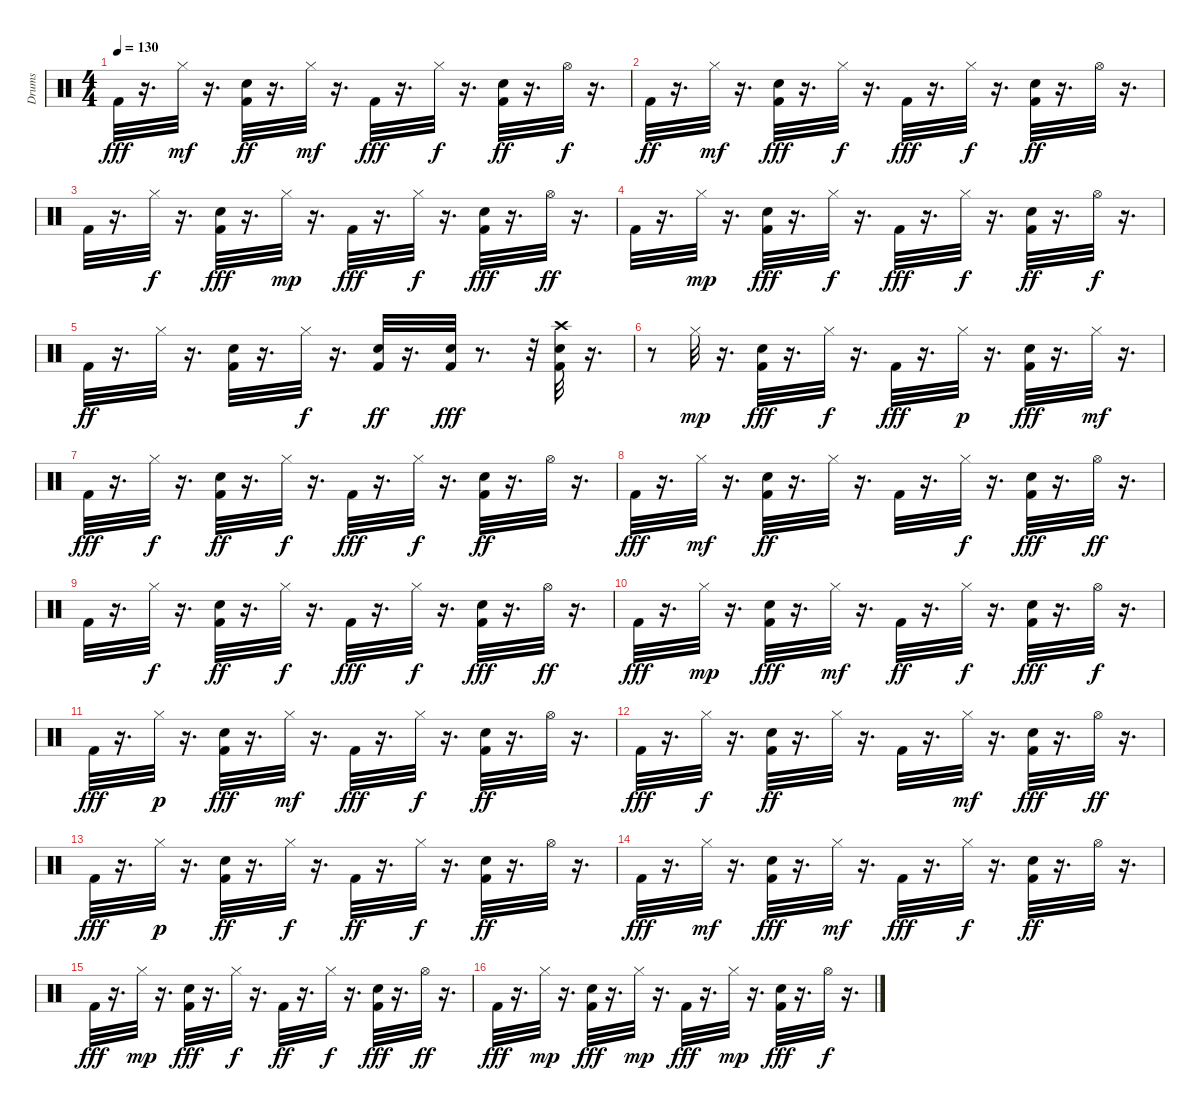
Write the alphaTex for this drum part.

\track ("Drums               " "Drums     ") {instrument percussion}
\staff {score}
\articulation defaults
\ts (4 4)
\tempo 130
\clef neutral
\ks c "Kick (hit) 2".32{dy fff}
r.16{d} "Hi-Hat (closed)".32{dy mf} r.16{d} ("Kick (hit) 2" "Snare (hit) 2").32{dy ff} r.16{d} "Hi-Hat (closed)".32{dy mf} r.16{d} "Kick (hit) 2".32{dy fff} r.16{d} "Hi-Hat (closed)".32{dy f} r.16{d} ("Kick (hit) 2" "Snare (hit) 2").32{dy ff} r.16{d} "Hi-Hat (open)".32{dy f} r.16{d} |
"Kick (hit) 2".32{dy ff} r.16{d} "Hi-Hat (closed)".32{dy mf} r.16{d} ("Kick (hit) 2" "Snare (hit) 2").32{dy fff} r.16{d} "Hi-Hat (closed)".32{dy f} r.16{d} "Kick (hit) 2".32{dy fff} r.16{d} "Hi-Hat (closed)".32{dy f} r.16{d} ("Kick (hit) 2" "Snare (hit) 2").32{dy ff} r.16{d} "Hi-Hat (open)".32 r.16{d} |
"Kick (hit) 2".32 r.16{d} "Hi-Hat (closed)".32{dy f} r.16{d} ("Kick (hit) 2" "Snare (hit) 2").32{dy fff} r.16{d} "Hi-Hat (closed)".32{dy mp} r.16{d} "Kick (hit) 2".32{dy fff} r.16{d} "Hi-Hat (closed)".32{dy f} r.16{d} ("Kick (hit) 2" "Snare (hit) 2").32{dy fff} r.16{d} "Hi-Hat (open)".32{dy ff} r.16{d} |
"Kick (hit) 2".32 r.16{d} "Hi-Hat (closed)".32{dy mp} r.16{d} ("Kick (hit) 2" "Snare (hit) 2").32{dy fff} r.16{d} "Hi-Hat (closed)".32{dy f} r.16{d} "Kick (hit) 2".32{dy fff} r.16{d} "Hi-Hat (closed)".32{dy f} r.16{d} ("Kick (hit) 2" "Snare (hit) 2").32{dy ff} r.16{d} "Hi-Hat (open)".32{dy f} r.16{d} |
"Kick (hit) 2".32{dy ff} r.16{d} "Hi-Hat (closed)".32 r.16{d} ("Kick (hit) 2" "Snare (hit) 2").32 r.16{d} "Hi-Hat (closed)".32{dy f} r.16{d} ("Kick (hit) 2" "Snare (hit) 2").32{dy ff} r.16{d} ("Kick (hit) 2" "Snare (hit) 2").32{dy fff} r.8{d} r.32 ("Kick (hit) 2" "Snare (hit) 2" "Crash high (hit)").32 r.16{d} |
r.8 "Hi-Hat (closed)".32{dy mp} r.16{d} ("Kick (hit) 2" "Snare (hit) 2").32{dy fff} r.16{d} "Hi-Hat (closed)".32{dy f} r.16{d} "Kick (hit) 2".32{dy fff} r.16{d} "Hi-Hat (closed)".32{dy p} r.16{d} ("Kick (hit) 2" "Snare (hit) 2").32{dy fff} r.16{d} "Hi-Hat (closed)".32{dy mf} r.16{d} |
"Kick (hit) 2".32{dy fff} r.16{d} "Hi-Hat (closed)".32{dy f} r.16{d} ("Kick (hit) 2" "Snare (hit) 2").32{dy ff} r.16{d} "Hi-Hat (closed)".32{dy f} r.16{d} "Kick (hit) 2".32{dy fff} r.16{d} "Hi-Hat (closed)".32{dy f} r.16{d} ("Kick (hit) 2" "Snare (hit) 2").32{dy ff} r.16{d} "Hi-Hat (open)".32 r.16{d} |
"Kick (hit) 2".32{dy fff} r.16{d} "Hi-Hat (closed)".32{dy mf} r.16{d} ("Kick (hit) 2" "Snare (hit) 2").32{dy ff} r.16{d} "Hi-Hat (closed)".32 r.16{d} "Kick (hit) 2".32 r.16{d} "Hi-Hat (closed)".32{dy f} r.16{d} ("Kick (hit) 2" "Snare (hit) 2").32{dy fff} r.16{d} "Hi-Hat (open)".32{dy ff} r.16{d} |
"Kick (hit) 2".32 r.16{d} "Hi-Hat (closed)".32{dy f} r.16{d} ("Kick (hit) 2" "Snare (hit) 2").32{dy ff} r.16{d} "Hi-Hat (closed)".32{dy f} r.16{d} "Kick (hit) 2".32{dy fff} r.16{d} "Hi-Hat (closed)".32{dy f} r.16{d} ("Kick (hit) 2" "Snare (hit) 2").32{dy fff} r.16{d} "Hi-Hat (open)".32{dy ff} r.16{d} |
"Kick (hit) 2".32{dy fff} r.16{d} "Hi-Hat (closed)".32{dy mp} r.16{d} ("Kick (hit) 2" "Snare (hit) 2").32{dy fff} r.16{d} "Hi-Hat (closed)".32{dy mf} r.16{d} "Kick (hit) 2".32{dy ff} r.16{d} "Hi-Hat (closed)".32{dy f} r.16{d} ("Kick (hit) 2" "Snare (hit) 2").32{dy fff} r.16{d} "Hi-Hat (open)".32{dy f} r.16{d} |
"Kick (hit) 2".32{dy fff} r.16{d} "Hi-Hat (closed)".32{dy p} r.16{d} ("Kick (hit) 2" "Snare (hit) 2").32{dy fff} r.16{d} "Hi-Hat (closed)".32{dy mf} r.16{d} "Kick (hit) 2".32{dy fff} r.16{d} "Hi-Hat (closed)".32{dy f} r.16{d} ("Kick (hit) 2" "Snare (hit) 2").32{dy ff} r.16{d} "Hi-Hat (open)".32 r.16{d} |
"Kick (hit) 2".32{dy fff} r.16{d} "Hi-Hat (closed)".32{dy f} r.16{d} ("Kick (hit) 2" "Snare (hit) 2").32{dy ff} r.16{d} "Hi-Hat (closed)".32 r.16{d} "Kick (hit) 2".32 r.16{d} "Hi-Hat (closed)".32{dy mf} r.16{d} ("Kick (hit) 2" "Snare (hit) 2").32{dy fff} r.16{d} "Hi-Hat (open)".32{dy ff} r.16{d} |
"Kick (hit) 2".32{dy fff} r.16{d} "Hi-Hat (closed)".32{dy p} r.16{d} ("Kick (hit) 2" "Snare (hit) 2").32{dy ff} r.16{d} "Hi-Hat (closed)".32{dy f} r.16{d} "Kick (hit) 2".32{dy ff} r.16{d} "Hi-Hat (closed)".32{dy f} r.16{d} ("Kick (hit) 2" "Snare (hit) 2").32{dy ff} r.16{d} "Hi-Hat (open)".32 r.16{d} |
"Kick (hit) 2".32{dy fff} r.16{d} "Hi-Hat (closed)".32{dy mf} r.16{d} ("Kick (hit) 2" "Snare (hit) 2").32{dy fff} r.16{d} "Hi-Hat (closed)".32{dy mf} r.16{d} "Kick (hit) 2".32{dy fff} r.16{d} "Hi-Hat (closed)".32{dy f} r.16{d} ("Kick (hit) 2" "Snare (hit) 2").32{dy ff} r.16{d} "Hi-Hat (open)".32 r.16{d} |
"Kick (hit) 2".32{dy fff} r.16{d} "Hi-Hat (closed)".32{dy mp} r.16{d} ("Kick (hit) 2" "Snare (hit) 2").32{dy fff} r.16{d} "Hi-Hat (closed)".32{dy f} r.16{d} "Kick (hit) 2".32{dy ff} r.16{d} "Hi-Hat (closed)".32{dy f} r.16{d} ("Kick (hit) 2" "Snare (hit) 2").32{dy fff} r.16{d} "Hi-Hat (open)".32{dy ff} r.16{d} |
"Kick (hit) 2".32{dy fff} r.16{d} "Hi-Hat (closed)".32{dy mp} r.16{d} ("Kick (hit) 2" "Snare (hit) 2").32{dy fff} r.16{d} "Hi-Hat (closed)".32{dy mp} r.16{d} "Kick (hit) 2".32{dy fff} r.16{d} "Hi-Hat (closed)".32{dy mp} r.16{d} ("Kick (hit) 2" "Snare (hit) 2").32{dy fff} r.16{d} "Hi-Hat (open)".32{dy f} r.16{d}
